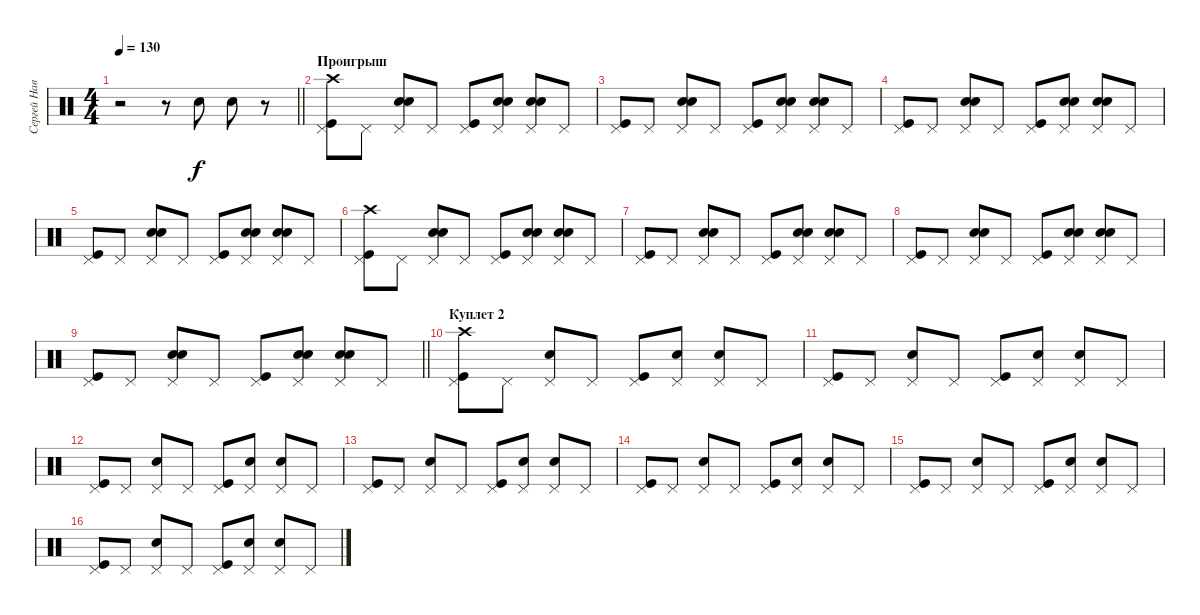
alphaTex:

\track ("Сергей Наветный (ударные)" "Сергей Нав") {instrument percussion}
\staff {score}
\articulation defaults
\ts (4 4)
\tempo 130
\clef neutral
\barLineRight lightlight
\ks c
r.2{dy f} r.8 "Snare (hit) 2".8 "Snare (hit) 2".8 r.8 |
\section ("" "Проигрыш")
("Crash high (hit)" "Kick (hit)" "Pedal Hi-Hat (hit)").8 "Pedal Hi-Hat (hit)".8 ("Hand Clap (hit)" "Snare (hit) 2" "Pedal Hi-Hat (hit)").8 "Pedal Hi-Hat (hit)".8 ("Kick (hit)" "Pedal Hi-Hat (hit)").8 ("Hand Clap (hit)" "Snare (hit) 2" "Pedal Hi-Hat (hit)").8 ("Hand Clap (hit)" "Snare (hit) 2" "Pedal Hi-Hat (hit)").8 "Pedal Hi-Hat (hit)".8 |
("Kick (hit)" "Pedal Hi-Hat (hit)").8 "Pedal Hi-Hat (hit)".8 ("Hand Clap (hit)" "Snare (hit) 2" "Pedal Hi-Hat (hit)").8 "Pedal Hi-Hat (hit)".8 ("Kick (hit)" "Pedal Hi-Hat (hit)").8 ("Hand Clap (hit)" "Snare (hit) 2" "Pedal Hi-Hat (hit)").8 ("Hand Clap (hit)" "Snare (hit) 2" "Pedal Hi-Hat (hit)").8 "Pedal Hi-Hat (hit)".8 |
("Kick (hit)" "Pedal Hi-Hat (hit)").8 "Pedal Hi-Hat (hit)".8 ("Hand Clap (hit)" "Snare (hit) 2" "Pedal Hi-Hat (hit)").8 "Pedal Hi-Hat (hit)".8 ("Kick (hit)" "Pedal Hi-Hat (hit)").8 ("Hand Clap (hit)" "Snare (hit) 2" "Pedal Hi-Hat (hit)").8 ("Hand Clap (hit)" "Snare (hit) 2" "Pedal Hi-Hat (hit)").8 "Pedal Hi-Hat (hit)".8 |
("Kick (hit)" "Pedal Hi-Hat (hit)").8 "Pedal Hi-Hat (hit)".8 ("Hand Clap (hit)" "Snare (hit) 2" "Pedal Hi-Hat (hit)").8 "Pedal Hi-Hat (hit)".8 ("Kick (hit)" "Pedal Hi-Hat (hit)").8 ("Hand Clap (hit)" "Snare (hit) 2" "Pedal Hi-Hat (hit)").8 ("Hand Clap (hit)" "Snare (hit) 2" "Pedal Hi-Hat (hit)").8 "Pedal Hi-Hat (hit)".8 |
("Crash high (hit)" "Kick (hit)" "Pedal Hi-Hat (hit)").8 "Pedal Hi-Hat (hit)".8 ("Hand Clap (hit)" "Snare (hit) 2" "Pedal Hi-Hat (hit)").8 "Pedal Hi-Hat (hit)".8 ("Kick (hit)" "Pedal Hi-Hat (hit)").8 ("Hand Clap (hit)" "Snare (hit) 2" "Pedal Hi-Hat (hit)").8 ("Hand Clap (hit)" "Snare (hit) 2" "Pedal Hi-Hat (hit)").8 "Pedal Hi-Hat (hit)".8 |
("Kick (hit)" "Pedal Hi-Hat (hit)").8 "Pedal Hi-Hat (hit)".8 ("Hand Clap (hit)" "Snare (hit) 2" "Pedal Hi-Hat (hit)").8 "Pedal Hi-Hat (hit)".8 ("Kick (hit)" "Pedal Hi-Hat (hit)").8 ("Hand Clap (hit)" "Snare (hit) 2" "Pedal Hi-Hat (hit)").8 ("Hand Clap (hit)" "Snare (hit) 2" "Pedal Hi-Hat (hit)").8 "Pedal Hi-Hat (hit)".8 |
("Kick (hit)" "Pedal Hi-Hat (hit)").8 "Pedal Hi-Hat (hit)".8 ("Hand Clap (hit)" "Snare (hit) 2" "Pedal Hi-Hat (hit)").8 "Pedal Hi-Hat (hit)".8 ("Kick (hit)" "Pedal Hi-Hat (hit)").8 ("Hand Clap (hit)" "Snare (hit) 2" "Pedal Hi-Hat (hit)").8 ("Hand Clap (hit)" "Snare (hit) 2" "Pedal Hi-Hat (hit)").8 "Pedal Hi-Hat (hit)".8 |
\barLineRight lightlight
("Kick (hit)" "Pedal Hi-Hat (hit)").8 "Pedal Hi-Hat (hit)".8 ("Hand Clap (hit)" "Snare (hit) 2" "Pedal Hi-Hat (hit)").8 "Pedal Hi-Hat (hit)".8 ("Kick (hit)" "Pedal Hi-Hat (hit)").8 ("Hand Clap (hit)" "Snare (hit) 2" "Pedal Hi-Hat (hit)").8 ("Hand Clap (hit)" "Snare (hit) 2" "Pedal Hi-Hat (hit)").8 "Pedal Hi-Hat (hit)".8 |
\section ("" "Куплет 2")
("Pedal Hi-Hat (hit)" "Kick (hit)" "Crash high (hit)").8 "Pedal Hi-Hat (hit)".8 ("Pedal Hi-Hat (hit)" "Snare (hit) 2").8 "Pedal Hi-Hat (hit)".8 ("Kick (hit)" "Pedal Hi-Hat (hit)").8 ("Snare (hit) 2" "Pedal Hi-Hat (hit)").8 ("Snare (hit) 2" "Pedal Hi-Hat (hit)").8 "Pedal Hi-Hat (hit)".8 |
("Pedal Hi-Hat (hit)" "Kick (hit)").8 "Pedal Hi-Hat (hit)".8 ("Pedal Hi-Hat (hit)" "Snare (hit) 2").8 "Pedal Hi-Hat (hit)".8 ("Kick (hit)" "Pedal Hi-Hat (hit)").8 ("Snare (hit) 2" "Pedal Hi-Hat (hit)").8 ("Snare (hit) 2" "Pedal Hi-Hat (hit)").8 "Pedal Hi-Hat (hit)".8 |
("Pedal Hi-Hat (hit)" "Kick (hit)").8 "Pedal Hi-Hat (hit)".8 ("Pedal Hi-Hat (hit)" "Snare (hit) 2").8 "Pedal Hi-Hat (hit)".8 ("Kick (hit)" "Pedal Hi-Hat (hit)").8 ("Snare (hit) 2" "Pedal Hi-Hat (hit)").8 ("Snare (hit) 2" "Pedal Hi-Hat (hit)").8 "Pedal Hi-Hat (hit)".8 |
("Pedal Hi-Hat (hit)" "Kick (hit)").8 "Pedal Hi-Hat (hit)".8 ("Pedal Hi-Hat (hit)" "Snare (hit) 2").8 "Pedal Hi-Hat (hit)".8 ("Kick (hit)" "Pedal Hi-Hat (hit)").8 ("Snare (hit) 2" "Pedal Hi-Hat (hit)").8 ("Snare (hit) 2" "Pedal Hi-Hat (hit)").8 "Pedal Hi-Hat (hit)".8 |
("Pedal Hi-Hat (hit)" "Kick (hit)").8 "Pedal Hi-Hat (hit)".8 ("Pedal Hi-Hat (hit)" "Snare (hit) 2").8 "Pedal Hi-Hat (hit)".8 ("Kick (hit)" "Pedal Hi-Hat (hit)").8 ("Snare (hit) 2" "Pedal Hi-Hat (hit)").8 ("Snare (hit) 2" "Pedal Hi-Hat (hit)").8 "Pedal Hi-Hat (hit)".8 |
("Pedal Hi-Hat (hit)" "Kick (hit)").8 "Pedal Hi-Hat (hit)".8 ("Pedal Hi-Hat (hit)" "Snare (hit) 2").8 "Pedal Hi-Hat (hit)".8 ("Kick (hit)" "Pedal Hi-Hat (hit)").8 ("Snare (hit) 2" "Pedal Hi-Hat (hit)").8 ("Snare (hit) 2" "Pedal Hi-Hat (hit)").8 "Pedal Hi-Hat (hit)".8 |
("Pedal Hi-Hat (hit)" "Kick (hit)").8 "Pedal Hi-Hat (hit)".8 ("Pedal Hi-Hat (hit)" "Snare (hit) 2").8 "Pedal Hi-Hat (hit)".8 ("Kick (hit)" "Pedal Hi-Hat (hit)").8 ("Snare (hit) 2" "Pedal Hi-Hat (hit)").8 ("Snare (hit) 2" "Pedal Hi-Hat (hit)").8 "Pedal Hi-Hat (hit)".8
